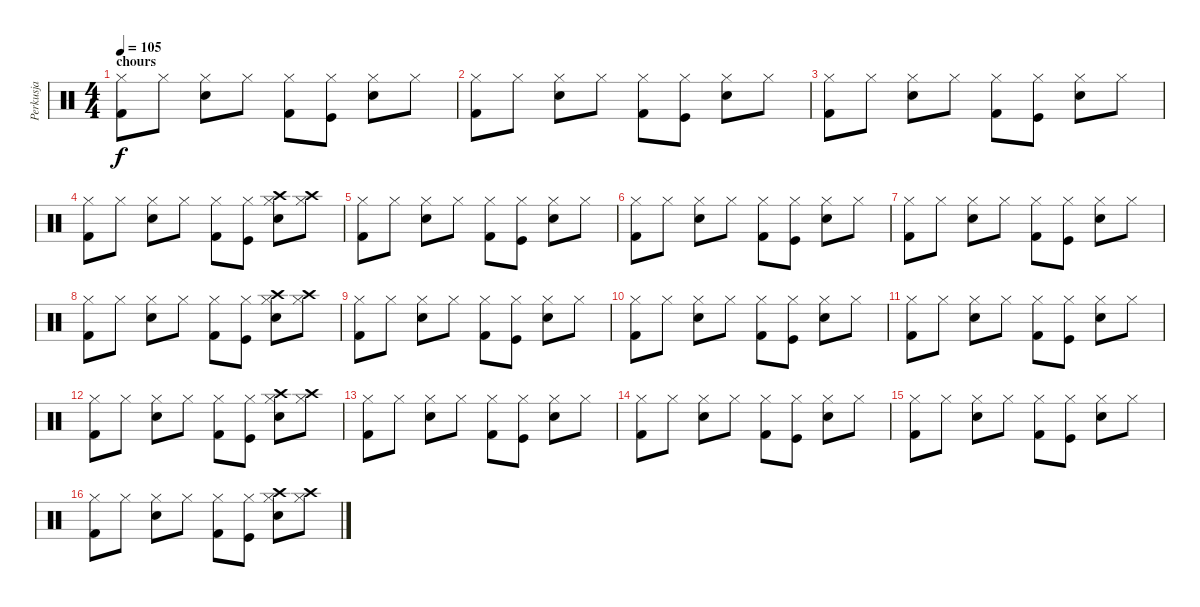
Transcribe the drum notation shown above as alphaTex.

\track ("Perkusja" "Perkusja") {instrument percussion}
\staff {score}
\articulation defaults
\ts (4 4)
\section ("" "chours")
\tempo 105
\clef neutral
\ks c
("Kick (hit) 2" "Hi-Hat (closed)").8{dy f} "Hi-Hat (closed)".8 ("Snare (hit) 2" "Hi-Hat (closed)").8 "Hi-Hat (closed)".8 ("Kick (hit) 2" "Hi-Hat (closed)").8 ("Kick (hit)" "Hi-Hat (closed)").8 ("Snare (hit) 2" "Hi-Hat (closed)").8 "Hi-Hat (closed)".8 |
("Kick (hit) 2" "Hi-Hat (closed)").8 "Hi-Hat (closed)".8 ("Snare (hit) 2" "Hi-Hat (closed)").8 "Hi-Hat (closed)".8 ("Kick (hit) 2" "Hi-Hat (closed)").8 ("Kick (hit)" "Hi-Hat (closed)").8 ("Snare (hit) 2" "Hi-Hat (closed)").8 "Hi-Hat (closed)".8 |
("Kick (hit) 2" "Hi-Hat (closed)").8 "Hi-Hat (closed)".8 ("Snare (hit) 2" "Hi-Hat (closed)").8 "Hi-Hat (closed)".8 ("Kick (hit) 2" "Hi-Hat (closed)").8 ("Kick (hit)" "Hi-Hat (closed)").8 ("Snare (hit) 2" "Hi-Hat (closed)").8 "Hi-Hat (closed)".8 |
("Kick (hit) 2" "Hi-Hat (closed)").8 "Hi-Hat (closed)".8 ("Snare (hit) 2" "Hi-Hat (closed)").8 "Hi-Hat (closed)".8 ("Kick (hit) 2" "Hi-Hat (closed)").8 ("Kick (hit)" "Hi-Hat (closed)").8 ("Crash high (hit)" "Snare (hit) 2" "Hi-Hat (closed)").8 ("Crash high (hit)" "Hi-Hat (closed)").8 |
("Kick (hit) 2" "Hi-Hat (closed)").8 "Hi-Hat (closed)".8 ("Snare (hit) 2" "Hi-Hat (closed)").8 "Hi-Hat (closed)".8 ("Kick (hit) 2" "Hi-Hat (closed)").8 ("Kick (hit)" "Hi-Hat (closed)").8 ("Snare (hit) 2" "Hi-Hat (closed)").8 "Hi-Hat (closed)".8 |
("Kick (hit) 2" "Hi-Hat (closed)").8 "Hi-Hat (closed)".8 ("Snare (hit) 2" "Hi-Hat (closed)").8 "Hi-Hat (closed)".8 ("Kick (hit) 2" "Hi-Hat (closed)").8 ("Kick (hit)" "Hi-Hat (closed)").8 ("Snare (hit) 2" "Hi-Hat (closed)").8 "Hi-Hat (closed)".8 |
("Kick (hit) 2" "Hi-Hat (closed)").8 "Hi-Hat (closed)".8 ("Snare (hit) 2" "Hi-Hat (closed)").8 "Hi-Hat (closed)".8 ("Kick (hit) 2" "Hi-Hat (closed)").8 ("Kick (hit)" "Hi-Hat (closed)").8 ("Snare (hit) 2" "Hi-Hat (closed)").8 "Hi-Hat (closed)".8 |
("Kick (hit) 2" "Hi-Hat (closed)").8 "Hi-Hat (closed)".8 ("Snare (hit) 2" "Hi-Hat (closed)").8 "Hi-Hat (closed)".8 ("Kick (hit) 2" "Hi-Hat (closed)").8 ("Kick (hit)" "Hi-Hat (closed)").8 ("Crash high (hit)" "Snare (hit) 2" "Hi-Hat (closed)").8 ("Crash high (hit)" "Hi-Hat (closed)").8 |
("Kick (hit) 2" "Hi-Hat (closed)").8 "Hi-Hat (closed)".8 ("Snare (hit) 2" "Hi-Hat (closed)").8 "Hi-Hat (closed)".8 ("Kick (hit) 2" "Hi-Hat (closed)").8 ("Kick (hit)" "Hi-Hat (closed)").8 ("Snare (hit) 2" "Hi-Hat (closed)").8 "Hi-Hat (closed)".8 |
("Kick (hit) 2" "Hi-Hat (closed)").8 "Hi-Hat (closed)".8 ("Snare (hit) 2" "Hi-Hat (closed)").8 "Hi-Hat (closed)".8 ("Kick (hit) 2" "Hi-Hat (closed)").8 ("Kick (hit)" "Hi-Hat (closed)").8 ("Snare (hit) 2" "Hi-Hat (closed)").8 "Hi-Hat (closed)".8 |
("Kick (hit) 2" "Hi-Hat (closed)").8 "Hi-Hat (closed)".8 ("Snare (hit) 2" "Hi-Hat (closed)").8 "Hi-Hat (closed)".8 ("Kick (hit) 2" "Hi-Hat (closed)").8 ("Kick (hit)" "Hi-Hat (closed)").8 ("Snare (hit) 2" "Hi-Hat (closed)").8 "Hi-Hat (closed)".8 |
("Kick (hit) 2" "Hi-Hat (closed)").8 "Hi-Hat (closed)".8 ("Snare (hit) 2" "Hi-Hat (closed)").8 "Hi-Hat (closed)".8 ("Kick (hit) 2" "Hi-Hat (closed)").8 ("Kick (hit)" "Hi-Hat (closed)").8 ("Crash high (hit)" "Snare (hit) 2" "Hi-Hat (closed)").8 ("Crash high (hit)" "Hi-Hat (closed)").8 |
("Kick (hit) 2" "Hi-Hat (closed)").8 "Hi-Hat (closed)".8 ("Snare (hit) 2" "Hi-Hat (closed)").8 "Hi-Hat (closed)".8 ("Kick (hit) 2" "Hi-Hat (closed)").8 ("Kick (hit)" "Hi-Hat (closed)").8 ("Snare (hit) 2" "Hi-Hat (closed)").8 "Hi-Hat (closed)".8 |
("Kick (hit) 2" "Hi-Hat (closed)").8 "Hi-Hat (closed)".8 ("Snare (hit) 2" "Hi-Hat (closed)").8 "Hi-Hat (closed)".8 ("Kick (hit) 2" "Hi-Hat (closed)").8 ("Kick (hit)" "Hi-Hat (closed)").8 ("Snare (hit) 2" "Hi-Hat (closed)").8 "Hi-Hat (closed)".8 |
("Kick (hit) 2" "Hi-Hat (closed)").8 "Hi-Hat (closed)".8 ("Snare (hit) 2" "Hi-Hat (closed)").8 "Hi-Hat (closed)".8 ("Kick (hit) 2" "Hi-Hat (closed)").8 ("Kick (hit)" "Hi-Hat (closed)").8 ("Snare (hit) 2" "Hi-Hat (closed)").8 "Hi-Hat (closed)".8 |
("Kick (hit) 2" "Hi-Hat (closed)").8 "Hi-Hat (closed)".8 ("Snare (hit) 2" "Hi-Hat (closed)").8 "Hi-Hat (closed)".8 ("Kick (hit) 2" "Hi-Hat (closed)").8 ("Kick (hit)" "Hi-Hat (closed)").8 ("Crash high (hit)" "Snare (hit) 2" "Hi-Hat (closed)").8 ("Crash high (hit)" "Hi-Hat (closed)").8
